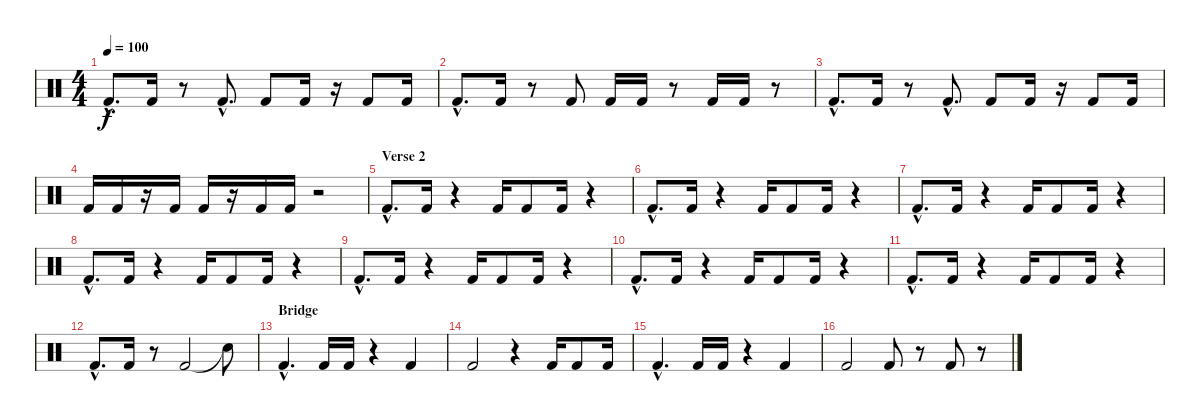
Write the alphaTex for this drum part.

\track "" {instrument percussion}
\staff {score}
\articulation defaults
\ts (4 4)
\tempo 100
\clef neutral
\ks c "Kick (hit) 2"{hac}.8{d dy f} "Kick (hit) 2".16
r.8 "Kick (hit) 2"{hac}.8{d} "Kick (hit) 2".8 "Kick (hit) 2".16 r.16 "Kick (hit) 2".8 "Kick (hit) 2".16 |
"Kick (hit) 2"{hac}.8{d} "Kick (hit) 2".16 r.8 "Kick (hit) 2".8 "Kick (hit) 2".16 "Kick (hit) 2".16 r.8 "Kick (hit) 2".16 "Kick (hit) 2".16 r.8 |
"Kick (hit) 2"{hac}.8{d} "Kick (hit) 2".16 r.8 "Kick (hit) 2"{hac}.8{d} "Kick (hit) 2".8 "Kick (hit) 2".16 r.16 "Kick (hit) 2".8 "Kick (hit) 2".16 |
"Kick (hit) 2".16 "Kick (hit) 2".16 r.16 "Kick (hit) 2".16 "Kick (hit) 2".16 r.16 "Kick (hit) 2".16 "Kick (hit) 2".16 r.2 |
\section ("" "Verse 2")
"Kick (hit) 2"{hac}.8{d} "Kick (hit) 2".16 r.4 "Kick (hit) 2".16 "Kick (hit) 2".8 "Kick (hit) 2".16 r.4 |
"Kick (hit) 2"{hac}.8{d} "Kick (hit) 2".16 r.4 "Kick (hit) 2".16 "Kick (hit) 2".8 "Kick (hit) 2".16 r.4 |
"Kick (hit) 2"{hac}.8{d} "Kick (hit) 2".16 r.4 "Kick (hit) 2".16 "Kick (hit) 2".8 "Kick (hit) 2".16 r.4 |
"Kick (hit) 2"{hac}.8{d} "Kick (hit) 2".16 r.4 "Kick (hit) 2".16 "Kick (hit) 2".8 "Kick (hit) 2".16 r.4 |
"Kick (hit) 2"{hac}.8{d} "Kick (hit) 2".16 r.4 "Kick (hit) 2".16 "Kick (hit) 2".8 "Kick (hit) 2".16 r.4 |
"Kick (hit) 2"{hac}.8{d} "Kick (hit) 2".16 r.4 "Kick (hit) 2".16 "Kick (hit) 2".8 "Kick (hit) 2".16 r.4 |
"Kick (hit) 2"{hac}.8{d} "Kick (hit) 2".16 r.4 "Kick (hit) 2".16 "Kick (hit) 2".8 "Kick (hit) 2".16 r.4 |
"Kick (hit) 2"{hac}.8{d} "Kick (hit) 2".16 r.8 "Kick (hit) 2".2 "Snare (hit)"{t}.8 |
\section ("" "Bridge")
"Kick (hit) 2"{hac}.4{d} "Kick (hit) 2".16 "Kick (hit) 2".16 r.4 "Kick (hit) 2".4 |
"Kick (hit) 2".2 r.4 "Kick (hit) 2".16 "Kick (hit) 2".8 "Kick (hit) 2".16 |
"Kick (hit) 2"{hac}.4{d} "Kick (hit) 2".16 "Kick (hit) 2".16 r.4 "Kick (hit) 2".4 |
"Kick (hit) 2".2 "Kick (hit) 2".8 r.8 "Kick (hit) 2".8 r.8
